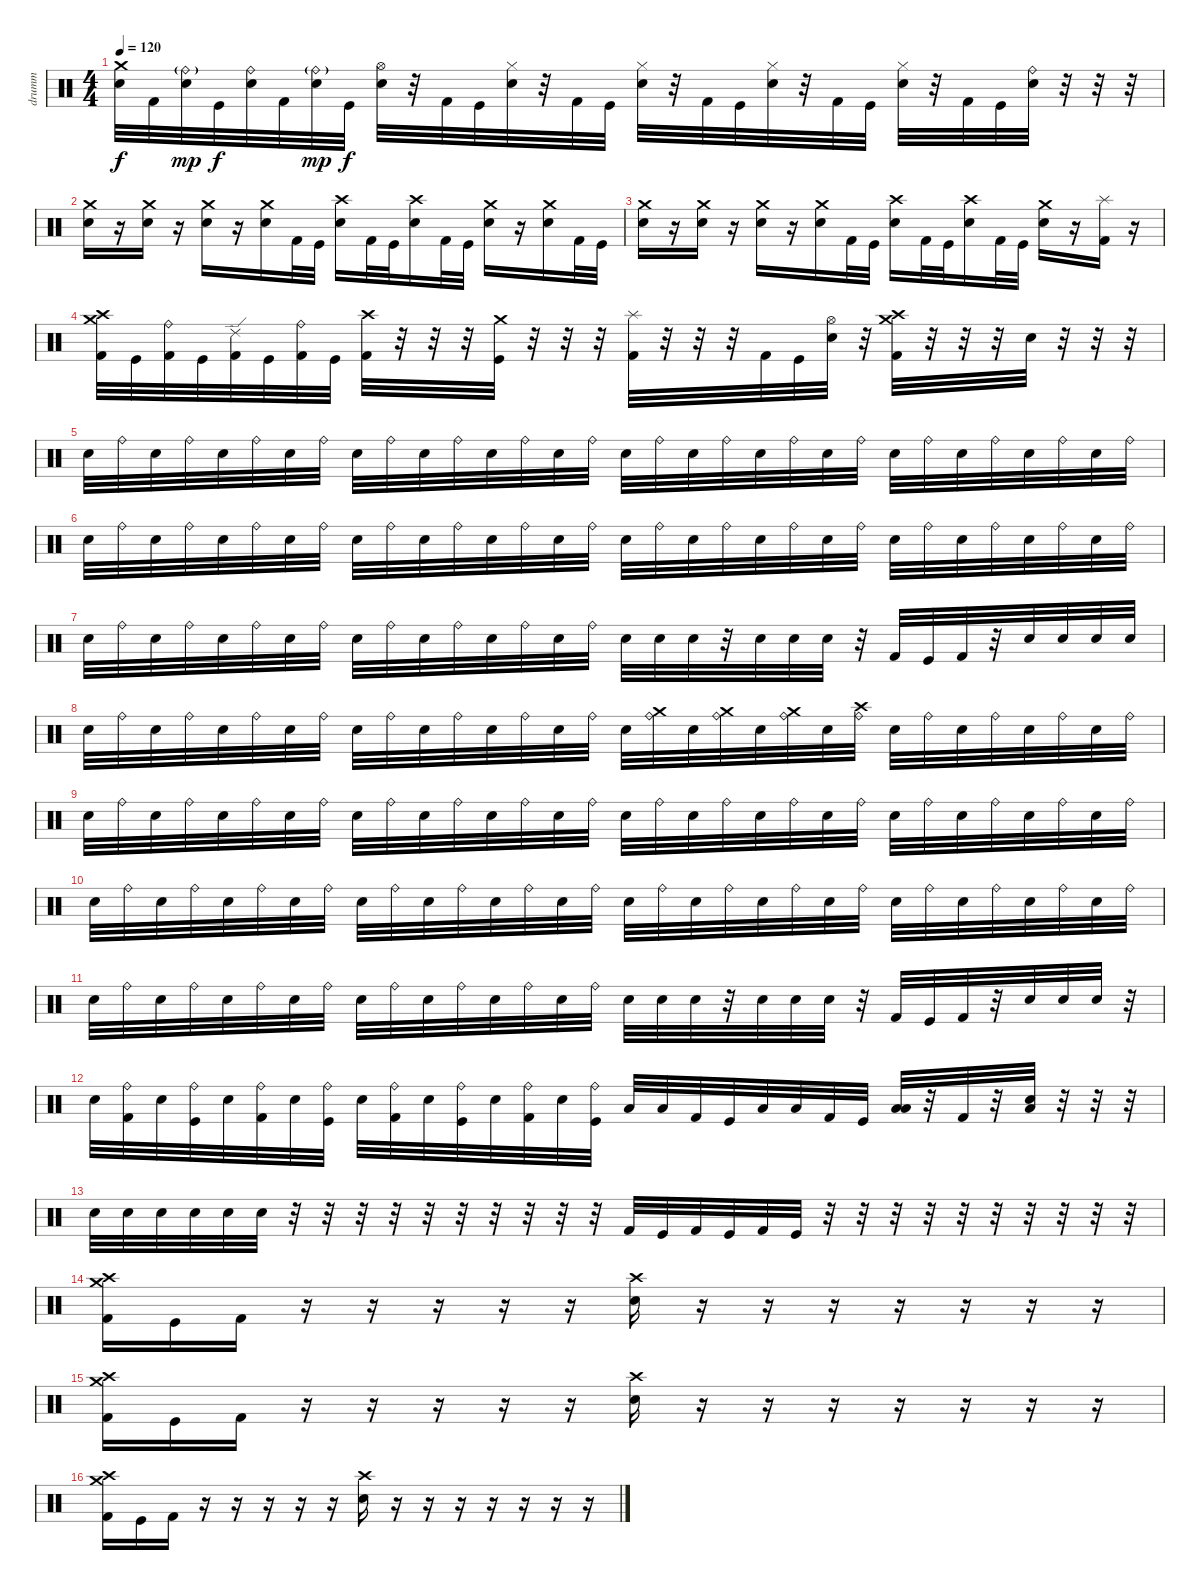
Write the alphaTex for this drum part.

\track ("drumm" "drumm") {instrument percussion}
\staff
\articulation defaults
\ts (4 4)
\tempo 120
\clef neutral
\ks c
("Electric Snare (hit)" "Crash medium (hit)").32{dy f} "Kick (hit) 2".32 ("Electric Snare (hit)" "Ride (bell)"{g}).32{dy mp} "Kick (hit)".32{dy f} ("Electric Snare (hit)" "Ride (bell)").32 "Kick (hit) 2".32 ("Electric Snare (hit)" "Ride (bell)"{g}).32{dy mp} "Kick (hit)".32{dy f} ("Electric Snare (hit)" "Hi-Hat (open)").32 r.32 "Kick (hit) 2".32 "Kick (hit)".32 ("Electric Snare (hit)" "Hi-Hat (closed)").32 r.32 "Kick (hit) 2".32 "Kick (hit)".32 ("Electric Snare (hit)" "Hi-Hat (closed)").32 r.32 "Kick (hit) 2".32 "Kick (hit)".32 ("Electric Snare (hit)" "Hi-Hat (closed)").32 r.32 "Kick (hit) 2".32 "Kick (hit)".32 ("Electric Snare (hit)" "Hi-Hat (closed)").32 r.32 "Kick (hit) 2".32 "Kick (hit)".32 ("Electric Snare (hit)" "Ride (bell)").32 r.32 r.32 r.32 |
("Electric Snare (hit)" "Crash medium (hit)").16 r.16 ("Electric Snare (hit)" "Crash medium (hit)").16 r.16 ("Electric Snare (hit)" "Crash medium (hit)").16 r.16 ("Electric Snare (hit)" "Crash medium (hit)").16 "Kick (hit) 2".32 "Kick (hit)".32 ("Electric Snare (hit)" "Crash high (hit)").16 "Kick (hit) 2".32 "Kick (hit)".32 ("Electric Snare (hit)" "Crash high (hit)").16 "Kick (hit) 2".32 "Kick (hit)".32 ("Electric Snare (hit)" "Crash medium (hit)").16 r.16 ("Electric Snare (hit)" "Crash medium (hit)").16 "Kick (hit) 2".32 "Kick (hit)".32 |
("Electric Snare (hit)" "Crash medium (hit)").16 r.16 ("Electric Snare (hit)" "Crash medium (hit)").16 r.16 ("Electric Snare (hit)" "Crash medium (hit)").16 r.16 ("Electric Snare (hit)" "Crash medium (hit)").16 "Kick (hit) 2".32 "Kick (hit)".32 ("Electric Snare (hit)" "Crash high (hit)").16 "Kick (hit) 2".32 "Kick (hit)".32 ("Electric Snare (hit)" "Crash high (hit)").16 "Kick (hit) 2".32 "Kick (hit)".32 ("Electric Snare (hit)" "Crash medium (hit)").16 r.16 ("Splash (hit)" "Kick (hit) 2").16 r.16 |
("Kick (hit) 2" "Crash medium (hit)" "Crash high (hit)").32 "Kick (hit)".32 ("Kick (hit) 2" "Ride (bell)").32 "Kick (hit)".32 ("Kick (hit) 2" "Ride (edge) 2").32 "Kick (hit)".32 ("Kick (hit) 2" "Ride (bell)").32 "Kick (hit)".32 ("Kick (hit) 2" "Crash high (hit)").32 r.32 r.32 r.32 ("Kick (hit)" "Crash medium (hit)").32 r.32 r.32 r.32 ("Kick (hit) 2" "Splash (hit)").32 r.32 r.32 r.32 "Kick (hit) 2".32 "Kick (hit)".32 ("Electric Snare (hit)" "Hi-Hat (open)").32 r.32 ("Kick (hit) 2" "Crash medium (hit)" "Crash high (hit)").32 r.32 r.32 r.32 "Electric Snare (hit)".32 r.32 r.32 r.32 |
"Electric Snare (hit)".32 "Ride (bell)".32 "Electric Snare (hit)".32 "Ride (bell)".32 "Electric Snare (hit)".32 "Ride (bell)".32 "Electric Snare (hit)".32 "Ride (bell)".32 "Electric Snare (hit)".32 "Ride (bell)".32 "Electric Snare (hit)".32 "Ride (bell)".32 "Electric Snare (hit)".32 "Ride (bell)".32 "Electric Snare (hit)".32 "Ride (bell)".32 "Electric Snare (hit)".32 "Ride (bell)".32 "Electric Snare (hit)".32 "Ride (bell)".32 "Electric Snare (hit)".32 "Ride (bell)".32 "Electric Snare (hit)".32 "Ride (bell)".32 "Electric Snare (hit)".32 "Ride (bell)".32 "Electric Snare (hit)".32 "Ride (bell)".32 "Electric Snare (hit)".32 "Ride (bell)".32 "Electric Snare (hit)".32 "Ride (bell)".32 |
"Electric Snare (hit)".32 "Ride (bell)".32 "Electric Snare (hit)".32 "Ride (bell)".32 "Electric Snare (hit)".32 "Ride (bell)".32 "Electric Snare (hit)".32 "Ride (bell)".32 "Electric Snare (hit)".32 "Ride (bell)".32 "Electric Snare (hit)".32 "Ride (bell)".32 "Electric Snare (hit)".32 "Ride (bell)".32 "Electric Snare (hit)".32 "Ride (bell)".32 "Electric Snare (hit)".32 "Ride (bell)".32 "Electric Snare (hit)".32 "Ride (bell)".32 "Electric Snare (hit)".32 "Ride (bell)".32 "Electric Snare (hit)".32 "Ride (bell)".32 "Electric Snare (hit)".32 "Ride (bell)".32 "Electric Snare (hit)".32 "Ride (bell)".32 "Electric Snare (hit)".32 "Ride (bell)".32 "Electric Snare (hit)".32 "Ride (bell)".32 |
"Electric Snare (hit)".32 "Ride (bell)".32 "Electric Snare (hit)".32 "Ride (bell)".32 "Electric Snare (hit)".32 "Ride (bell)".32 "Electric Snare (hit)".32 "Ride (bell)".32 "Electric Snare (hit)".32 "Ride (bell)".32 "Electric Snare (hit)".32 "Ride (bell)".32 "Electric Snare (hit)".32 "Ride (bell)".32 "Electric Snare (hit)".32 "Ride (bell)".32 "Electric Snare (hit)".32 "Electric Snare (hit)".32 "Electric Snare (hit)".32 r.32 "Electric Snare (hit)".32 "Electric Snare (hit)".32 "Electric Snare (hit)".32 r.32 "Kick (hit) 2".32 "Kick (hit)".32 "Kick (hit) 2".32 r.32 "Electric Snare (hit)".32 "Electric Snare (hit)".32 "Electric Snare (hit)".32 "Electric Snare (hit)".32 |
"Electric Snare (hit)".32 "Ride (bell)".32 "Electric Snare (hit)".32 "Ride (bell)".32 "Electric Snare (hit)".32 "Ride (bell)".32 "Electric Snare (hit)".32 "Ride (bell)".32 "Electric Snare (hit)".32 "Ride (bell)".32 "Electric Snare (hit)".32 "Ride (bell)".32 "Electric Snare (hit)".32 "Ride (bell)".32 "Electric Snare (hit)".32 "Ride (bell)".32 "Electric Snare (hit)".32 ("Ride (bell)" "Crash medium (hit)").32 "Electric Snare (hit)".32 ("Ride (bell)" "Crash medium (hit)").32 "Electric Snare (hit)".32 ("Ride (bell)" "Crash medium (hit)").32 "Electric Snare (hit)".32 ("Ride (bell)" "Crash high (hit)").32 "Electric Snare (hit)".32 "Ride (bell)".32 "Electric Snare (hit)".32 "Ride (bell)".32 "Electric Snare (hit)".32 "Ride (bell)".32 "Electric Snare (hit)".32 "Ride (bell)".32 |
"Electric Snare (hit)".32 "Ride (bell)".32 "Electric Snare (hit)".32 "Ride (bell)".32 "Electric Snare (hit)".32 "Ride (bell)".32 "Electric Snare (hit)".32 "Ride (bell)".32 "Electric Snare (hit)".32 "Ride (bell)".32 "Electric Snare (hit)".32 "Ride (bell)".32 "Electric Snare (hit)".32 "Ride (bell)".32 "Electric Snare (hit)".32 "Ride (bell)".32 "Electric Snare (hit)".32 "Ride (bell)".32 "Electric Snare (hit)".32 "Ride (bell)".32 "Electric Snare (hit)".32 "Ride (bell)".32 "Electric Snare (hit)".32 "Ride (bell)".32 "Electric Snare (hit)".32 "Ride (bell)".32 "Electric Snare (hit)".32 "Ride (bell)".32 "Electric Snare (hit)".32 "Ride (bell)".32 "Electric Snare (hit)".32 "Ride (bell)".32 |
"Electric Snare (hit)".32 "Ride (bell)".32 "Electric Snare (hit)".32 "Ride (bell)".32 "Electric Snare (hit)".32 "Ride (bell)".32 "Electric Snare (hit)".32 "Ride (bell)".32 "Electric Snare (hit)".32 "Ride (bell)".32 "Electric Snare (hit)".32 "Ride (bell)".32 "Electric Snare (hit)".32 "Ride (bell)".32 "Electric Snare (hit)".32 "Ride (bell)".32 "Electric Snare (hit)".32 "Ride (bell)".32 "Electric Snare (hit)".32 "Ride (bell)".32 "Electric Snare (hit)".32 "Ride (bell)".32 "Electric Snare (hit)".32 "Ride (bell)".32 "Electric Snare (hit)".32 "Ride (bell)".32 "Electric Snare (hit)".32 "Ride (bell)".32 "Electric Snare (hit)".32 "Ride (bell)".32 "Electric Snare (hit)".32 "Ride (bell)".32 |
"Electric Snare (hit)".32 "Ride (bell)".32 "Electric Snare (hit)".32 "Ride (bell)".32 "Electric Snare (hit)".32 "Ride (bell)".32 "Electric Snare (hit)".32 "Ride (bell)".32 "Electric Snare (hit)".32 "Ride (bell)".32 "Electric Snare (hit)".32 "Ride (bell)".32 "Electric Snare (hit)".32 "Ride (bell)".32 "Electric Snare (hit)".32 "Ride (bell)".32 "Electric Snare (hit)".32 "Electric Snare (hit)".32 "Electric Snare (hit)".32 r.32 "Electric Snare (hit)".32 "Electric Snare (hit)".32 "Electric Snare (hit)".32 r.32 "Kick (hit) 2".32 "Kick (hit)".32 "Kick (hit) 2".32 r.32 "Electric Snare (hit)".32 "Electric Snare (hit)".32 "Electric Snare (hit)".32 r.32 |
"Electric Snare (hit)".32 ("Ride (bell)" "Kick (hit) 2").32 "Electric Snare (hit)".32 ("Ride (bell)" "Kick (hit)").32 "Electric Snare (hit)".32 ("Ride (bell)" "Kick (hit) 2").32 "Electric Snare (hit)".32 ("Ride (bell)" "Kick (hit)").32 "Electric Snare (hit)".32 ("Ride (bell)" "Kick (hit) 2").32 "Electric Snare (hit)".32 ("Ride (bell)" "Kick (hit)").32 "Electric Snare (hit)".32 ("Ride (bell)" "Kick (hit) 2").32 "Electric Snare (hit)".32 ("Ride (bell)" "Kick (hit)").32 "Low Tom (hit)".32 "Low Tom (hit)".32 "Kick (hit) 2".32 "Kick (hit)".32 "Low Floor Tom (hit)".32 "Low Floor Tom (hit)".32 "Kick (hit) 2".32 "Kick (hit)".32 ("Low Tom (hit)" "Low Tom (hit)").32 r.32 "Kick (hit) 2".32 r.32 ("Electric Snare (hit)" "Low Floor Tom (hit)").32 r.32 r.32 r.32 |
"Electric Snare (hit)".32 "Electric Snare (hit)".32 "Electric Snare (hit)".32 "Electric Snare (hit)".32 "Electric Snare (hit)".32 "Electric Snare (hit)".32 r.32 r.32 r.32 r.32 r.32 r.32 r.32 r.32 r.32 r.32 "Kick (hit) 2".32 "Kick (hit)".32 "Kick (hit) 2".32 "Kick (hit)".32 "Kick (hit) 2".32 "Kick (hit)".32 r.32 r.32 r.32 r.32 r.32 r.32 r.32 r.32 r.32 r.32 |
("Kick (hit) 2" "Crash medium (hit)" "Crash high (hit)").16 "Kick (hit)".16 "Kick (hit) 2".16 r.16 r.16 r.16 r.16 r.16 ("Electric Snare (hit)" "Crash high (hit)").16 r.16 r.16 r.16 r.16 r.16 r.16 r.16 |
("Kick (hit) 2" "Crash medium (hit)" "Crash high (hit)").16 "Kick (hit)".16 "Kick (hit) 2".16 r.16 r.16 r.16 r.16 r.16 ("Electric Snare (hit)" "Crash high (hit)").16 r.16 r.16 r.16 r.16 r.16 r.16 r.16 |
("Kick (hit) 2" "Crash medium (hit)" "Crash high (hit)").16 "Kick (hit)".16 "Kick (hit) 2".16 r.16 r.16 r.16 r.16 r.16 ("Electric Snare (hit)" "Crash high (hit)").16 r.16 r.16 r.16 r.16 r.16 r.16 r.16
